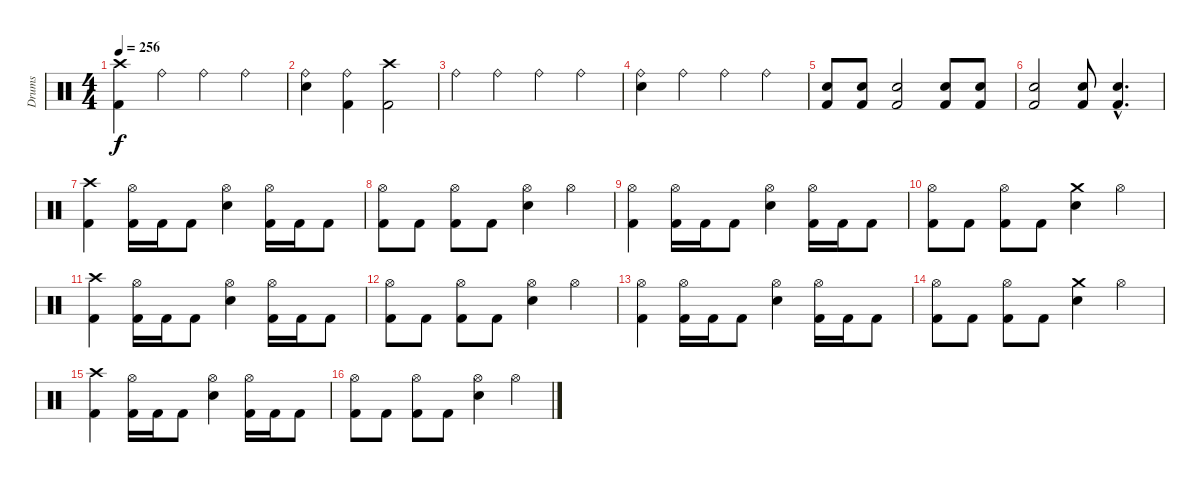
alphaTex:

\track ("Drums" "Drums") {instrument percussion}
\staff {score}
\articulation defaults
\ts (4 4)
\tempo 256
\clef neutral
\ks c
("Crash high (hit)" "Kick (hit) 2").4{dy f} "Ride (bell)".4 "Ride (bell)".4 "Ride (bell)".4 |
("Electric Snare (hit)" "Ride (bell)").4 ("Kick (hit) 2" "Ride (bell)").4 ("Crash high (hit)" "Kick (hit) 2").2 |
"Ride (bell)".4 "Ride (bell)".4 "Ride (bell)".4 "Ride (bell)".4 |
("Electric Snare (hit)" "Ride (bell)").4 "Ride (bell)".4 "Ride (bell)".4 "Ride (bell)".4 |
("Electric Snare (hit)" "Kick (hit) 2").8 ("Electric Snare (hit)" "Kick (hit) 2").8 ("Electric Snare (hit)" "Kick (hit) 2").2 ("Electric Snare (hit)" "Kick (hit) 2").8 ("Electric Snare (hit)" "Kick (hit) 2").8 |
("Electric Snare (hit)" "Kick (hit) 2").2 ("Electric Snare (hit)" "Kick (hit) 2").8 ("Electric Snare (hit)"{hac} "Kick (hit) 2"{hac}).4{d} |
("Crash high (hit)" "Kick (hit) 2").4 ("Hi-Hat (open)" "Kick (hit) 2").16 "Kick (hit) 2".16 "Kick (hit) 2".8 ("Hi-Hat (open)" "Electric Snare (hit)").4 ("Hi-Hat (open)" "Kick (hit) 2").16 "Kick (hit) 2".16 "Kick (hit) 2".8 |
("Hi-Hat (open)" "Kick (hit) 2").8 "Kick (hit) 2".8 ("Hi-Hat (open)" "Kick (hit) 2").8 "Kick (hit) 2".8 ("Hi-Hat (open)" "Electric Snare (hit)").4 "Hi-Hat (open)".4 |
("Hi-Hat (open)" "Kick (hit) 2").4 ("Hi-Hat (open)" "Kick (hit) 2").16 "Kick (hit) 2".16 "Kick (hit) 2".8 ("Hi-Hat (open)" "Electric Snare (hit)").4 ("Hi-Hat (open)" "Kick (hit) 2").16 "Kick (hit) 2".16 "Kick (hit) 2".8 |
("Hi-Hat (open)" "Kick (hit) 2").8 "Kick (hit) 2".8 ("Hi-Hat (open)" "Kick (hit) 2").8 "Kick (hit) 2".8 ("Crash medium (hit)" "Electric Snare (hit)").4 "Hi-Hat (open)".4 |
("Crash high (hit)" "Kick (hit) 2").4 ("Hi-Hat (open)" "Kick (hit) 2").16 "Kick (hit) 2".16 "Kick (hit) 2".8 ("Hi-Hat (open)" "Electric Snare (hit)").4 ("Hi-Hat (open)" "Kick (hit) 2").16 "Kick (hit) 2".16 "Kick (hit) 2".8 |
("Hi-Hat (open)" "Kick (hit) 2").8 "Kick (hit) 2".8 ("Hi-Hat (open)" "Kick (hit) 2").8 "Kick (hit) 2".8 ("Hi-Hat (open)" "Electric Snare (hit)").4 "Hi-Hat (open)".4 |
("Hi-Hat (open)" "Kick (hit) 2").4 ("Hi-Hat (open)" "Kick (hit) 2").16 "Kick (hit) 2".16 "Kick (hit) 2".8 ("Hi-Hat (open)" "Electric Snare (hit)").4 ("Hi-Hat (open)" "Kick (hit) 2").16 "Kick (hit) 2".16 "Kick (hit) 2".8 |
("Hi-Hat (open)" "Kick (hit) 2").8 "Kick (hit) 2".8 ("Hi-Hat (open)" "Kick (hit) 2").8 "Kick (hit) 2".8 ("Crash medium (hit)" "Electric Snare (hit)").4 "Hi-Hat (open)".4 |
("Crash high (hit)" "Kick (hit) 2").4 ("Hi-Hat (open)" "Kick (hit) 2").16 "Kick (hit) 2".16 "Kick (hit) 2".8 ("Hi-Hat (open)" "Electric Snare (hit)").4 ("Hi-Hat (open)" "Kick (hit) 2").16 "Kick (hit) 2".16 "Kick (hit) 2".8 |
("Hi-Hat (open)" "Kick (hit) 2").8 "Kick (hit) 2".8 ("Hi-Hat (open)" "Kick (hit) 2").8 "Kick (hit) 2".8 ("Hi-Hat (open)" "Electric Snare (hit)").4 "Hi-Hat (open)".4
